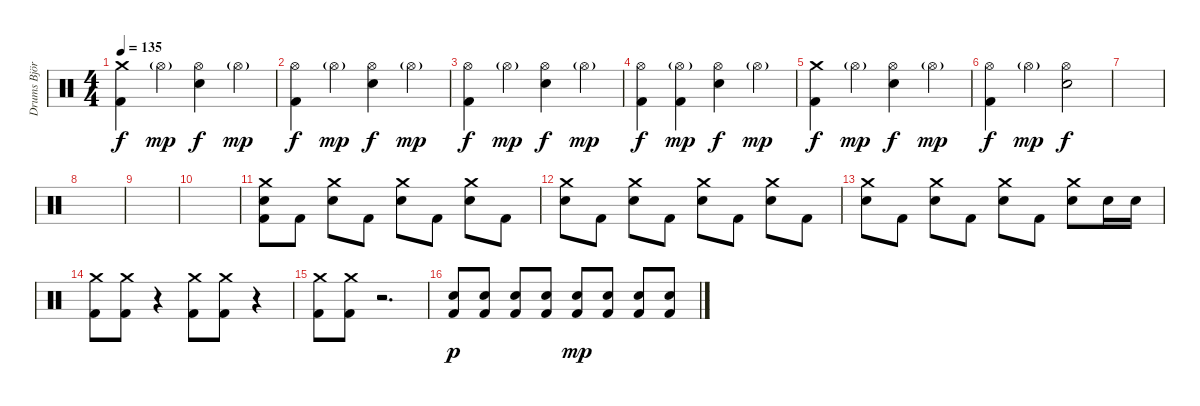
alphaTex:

\track ("Drums Björn Fryklund" "Drums Björ") {instrument percussion}
\staff {score}
\articulation defaults
\ts (4 4)
\tempo 135
\clef neutral
\ks c
("Crash medium (hit)" "Kick (hit) 2").4{dy f} "Hi-Hat (open)"{g}.4{dy mp} ("Hi-Hat (open)" "Electric Snare (hit)").4{dy f} "Hi-Hat (open)"{g}.4{dy mp} |
("Hi-Hat (open)" "Kick (hit) 2").4{dy f} "Hi-Hat (open)"{g}.4{dy mp} ("Hi-Hat (open)" "Electric Snare (hit)").4{dy f} "Hi-Hat (open)"{g}.4{dy mp} |
("Hi-Hat (open)" "Kick (hit) 2").4{dy f} "Hi-Hat (open)"{g}.4{dy mp} ("Hi-Hat (open)" "Electric Snare (hit)").4{dy f} "Hi-Hat (open)"{g}.4{dy mp} |
("Hi-Hat (open)" "Kick (hit) 2").4{dy f} ("Hi-Hat (open)"{g} "Kick (hit) 2").4{dy mp} ("Hi-Hat (open)" "Electric Snare (hit)").4{dy f} "Hi-Hat (open)"{g}.4{dy mp} |
("Crash medium (hit)" "Kick (hit) 2").4{dy f} "Hi-Hat (open)"{g}.4{dy mp} ("Hi-Hat (open)" "Electric Snare (hit)").4{dy f} "Hi-Hat (open)"{g}.4{dy mp} |
("Hi-Hat (open)" "Kick (hit) 2").4{dy f} "Hi-Hat (open)"{g}.4{dy mp} ("Hi-Hat (open)" "Electric Snare (hit)").2{dy f} |
|
|
|
|
("Crash medium (hit)" "Electric Snare (hit)" "Kick (hit) 2").8 "Kick (hit) 2".8 ("Crash medium (hit)" "Electric Snare (hit)").8 "Kick (hit) 2".8 ("Crash medium (hit)" "Electric Snare (hit)").8 "Kick (hit) 2".8 ("Crash medium (hit)" "Electric Snare (hit)").8 "Kick (hit) 2".8 |
("Crash medium (hit)" "Electric Snare (hit)").8 "Kick (hit) 2".8 ("Crash medium (hit)" "Electric Snare (hit)").8 "Kick (hit) 2".8 ("Crash medium (hit)" "Electric Snare (hit)").8 "Kick (hit) 2".8 ("Crash medium (hit)" "Electric Snare (hit)").8 "Kick (hit) 2".8 |
("Crash medium (hit)" "Electric Snare (hit)").8 "Kick (hit) 2".8 ("Crash medium (hit)" "Electric Snare (hit)").8 "Kick (hit) 2".8 ("Crash medium (hit)" "Electric Snare (hit)").8 "Kick (hit) 2".8 ("Crash medium (hit)" "Electric Snare (hit)").8 "Electric Snare (hit)".16 "Electric Snare (hit)".16 |
("Crash medium (hit)" "Kick (hit) 2").8 ("Crash medium (hit)" "Kick (hit) 2").8 r.4 ("Crash medium (hit)" "Kick (hit) 2").8 ("Crash medium (hit)" "Kick (hit) 2").8 r.4 |
("Crash medium (hit)" "Kick (hit) 2").8 ("Crash medium (hit)" "Kick (hit) 2").8 r.2{d} |
("Electric Snare (hit)" "Kick (hit) 2").8{dy p} ("Electric Snare (hit)" "Kick (hit) 2").8 ("Electric Snare (hit)" "Kick (hit) 2").8 ("Electric Snare (hit)" "Kick (hit) 2").8 ("Electric Snare (hit)" "Kick (hit) 2").8{dy mp} ("Electric Snare (hit)" "Kick (hit) 2").8 ("Electric Snare (hit)" "Kick (hit) 2").8 ("Electric Snare (hit)" "Kick (hit) 2").8
